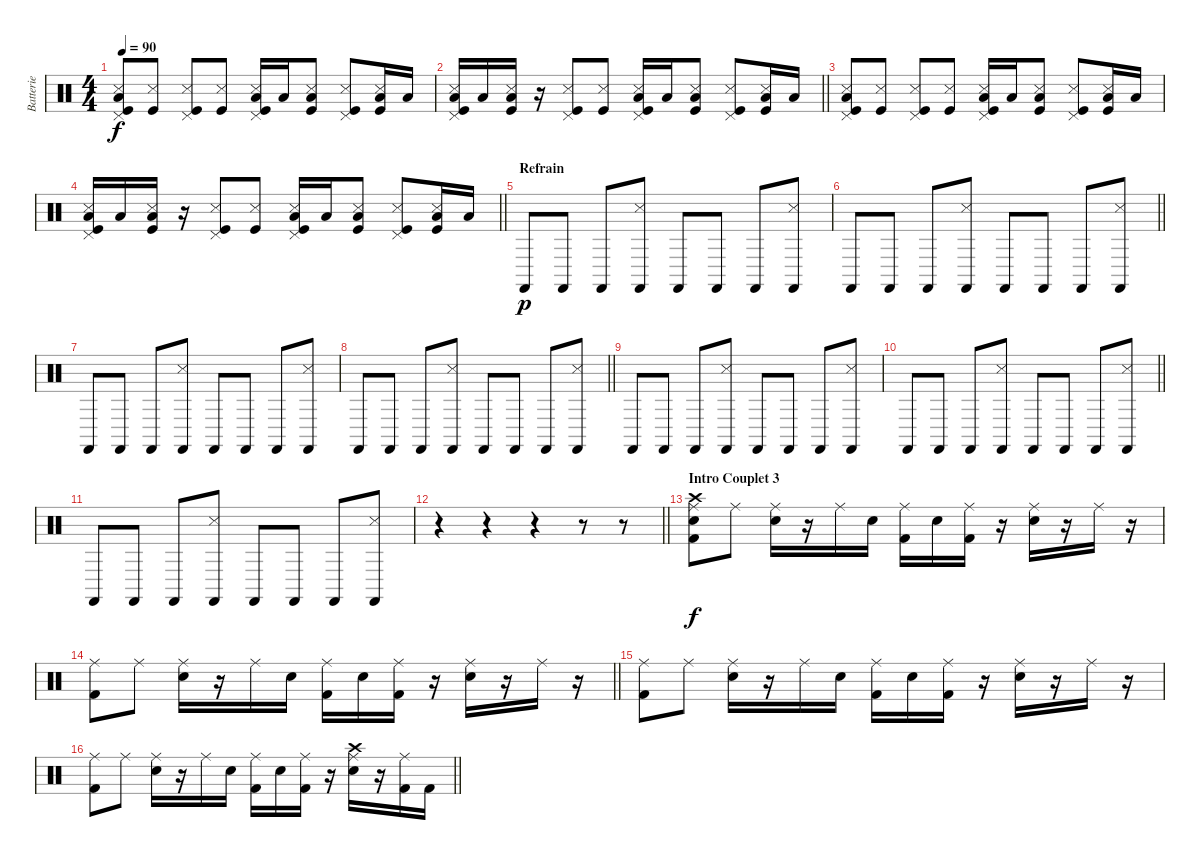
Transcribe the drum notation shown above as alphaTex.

\track ("Batterie" "Batterie") {instrument percussion}
\staff {score}
\articulation defaults
\ts (4 4)
\tempo 90
\clef neutral
\ks c
("Snare (side stick) 3" "Pedal Hi-Hat (hit)" "Low Floor Tom (hit)" "Kick (hit)").8{dy f} ("Snare (side stick) 3" "Kick (hit)").8 ("Snare (side stick) 3" "Pedal Hi-Hat (hit)" "Kick (hit)").8 ("Snare (side stick) 3" "Kick (hit)").8 ("Snare (side stick) 3" "Pedal Hi-Hat (hit)" "Low Floor Tom (hit)" "Kick (hit)").16 "Low Floor Tom (hit)".16 ("Snare (side stick) 3" "Low Floor Tom (hit)" "Kick (hit)").8 ("Snare (side stick) 3" "Pedal Hi-Hat (hit)" "Kick (hit)").8 ("Snare (side stick) 3" "Low Floor Tom (hit)" "Kick (hit)").16 "Low Floor Tom (hit)".16 |
\barLineRight lightlight
("Snare (side stick) 3" "Pedal Hi-Hat (hit)" "Low Floor Tom (hit)" "Kick (hit)").16 "Low Floor Tom (hit)".16 ("Snare (side stick) 3" "Low Floor Tom (hit)" "Kick (hit)").16 r.16 ("Snare (side stick) 3" "Pedal Hi-Hat (hit)" "Kick (hit)").8 ("Snare (side stick) 3" "Kick (hit)").8 ("Snare (side stick) 3" "Pedal Hi-Hat (hit)" "Low Floor Tom (hit)" "Kick (hit)").16 "Low Floor Tom (hit)".16 ("Snare (side stick) 3" "Low Floor Tom (hit)" "Kick (hit)").8 ("Snare (side stick) 3" "Pedal Hi-Hat (hit)" "Kick (hit)").8 ("Snare (side stick) 3" "Low Floor Tom (hit)" "Kick (hit)").16 "Low Floor Tom (hit)".16 |
("Snare (side stick) 3" "Pedal Hi-Hat (hit)" "Low Floor Tom (hit)" "Kick (hit)").8 ("Snare (side stick) 3" "Kick (hit)").8 ("Snare (side stick) 3" "Pedal Hi-Hat (hit)" "Kick (hit)").8 ("Snare (side stick) 3" "Kick (hit)").8 ("Snare (side stick) 3" "Pedal Hi-Hat (hit)" "Low Floor Tom (hit)" "Kick (hit)").16 "Low Floor Tom (hit)".16 ("Snare (side stick) 3" "Low Floor Tom (hit)" "Kick (hit)").8 ("Snare (side stick) 3" "Pedal Hi-Hat (hit)" "Kick (hit)").8 ("Snare (side stick) 3" "Low Floor Tom (hit)" "Kick (hit)").16 "Low Floor Tom (hit)".16 |
\barLineRight lightlight
("Snare (side stick) 3" "Pedal Hi-Hat (hit)" "Low Floor Tom (hit)" "Kick (hit)").16 "Low Floor Tom (hit)".16 ("Snare (side stick) 3" "Low Floor Tom (hit)" "Kick (hit)").16 r.16 ("Snare (side stick) 3" "Pedal Hi-Hat (hit)" "Kick (hit)").8 ("Snare (side stick) 3" "Kick (hit)").8 ("Snare (side stick) 3" "Pedal Hi-Hat (hit)" "Low Floor Tom (hit)" "Kick (hit)").16 "Low Floor Tom (hit)".16 ("Snare (side stick) 3" "Low Floor Tom (hit)" "Kick (hit)").8 ("Snare (side stick) 3" "Pedal Hi-Hat (hit)" "Kick (hit)").8 ("Snare (side stick) 3" "Low Floor Tom (hit)" "Kick (hit)").16 "Low Floor Tom (hit)".16 |
\section ("" "Refrain")
"Castanets (hit)".8{dy p} "Castanets (hit)".8 "Castanets (hit)".8 ("Castanets (hit)" "Snare (side stick) 3").8 "Castanets (hit)".8 "Castanets (hit)".8 "Castanets (hit)".8 ("Castanets (hit)" "Snare (side stick) 3").8 |
\barLineRight lightlight "Castanets (hit)".8 "Castanets (hit)".8 "Castanets (hit)".8
("Castanets (hit)" "Snare (side stick) 3").8 "Castanets (hit)".8 "Castanets (hit)".8 "Castanets (hit)".8 ("Castanets (hit)" "Snare (side stick) 3").8 |
"Castanets (hit)".8 "Castanets (hit)".8 "Castanets (hit)".8 ("Castanets (hit)" "Snare (side stick) 3").8 "Castanets (hit)".8 "Castanets (hit)".8 "Castanets (hit)".8 ("Castanets (hit)" "Snare (side stick) 3").8 |
\barLineRight lightlight "Castanets (hit)".8 "Castanets (hit)".8 "Castanets (hit)".8
("Castanets (hit)" "Snare (side stick) 3").8 "Castanets (hit)".8 "Castanets (hit)".8 "Castanets (hit)".8 ("Castanets (hit)" "Snare (side stick) 3").8 |
"Castanets (hit)".8 "Castanets (hit)".8 "Castanets (hit)".8 ("Castanets (hit)" "Snare (side stick) 3").8 "Castanets (hit)".8 "Castanets (hit)".8 "Castanets (hit)".8 ("Castanets (hit)" "Snare (side stick) 3").8 |
\barLineRight lightlight "Castanets (hit)".8 "Castanets (hit)".8 "Castanets (hit)".8
("Castanets (hit)" "Snare (side stick) 3").8 "Castanets (hit)".8 "Castanets (hit)".8 "Castanets (hit)".8 ("Castanets (hit)" "Snare (side stick) 3").8 |
"Castanets (hit)".8 "Castanets (hit)".8 "Castanets (hit)".8 ("Castanets (hit)" "Snare (side stick) 3").8 "Castanets (hit)".8 "Castanets (hit)".8 "Castanets (hit)".8 ("Castanets (hit)" "Snare (side stick) 3").8 |
\barLineRight lightlight
r.4 r.4 r.4 r.8 r.8 |
\section ("" "Intro Couplet 3")
("Crash high (hit)" "Ride (middle)" "Electric Snare (hit)" "Kick (hit) 2").8{dy f} "Ride (middle)".8 ("Ride (middle)" "Electric Snare (hit)").16 r.16 "Ride (middle)".16 "Electric Snare (hit)".16 ("Ride (middle)" "Kick (hit) 2").16 "Electric Snare (hit)".16 ("Ride (middle)" "Kick (hit) 2").16 r.16 ("Ride (middle)" "Electric Snare (hit)").16 r.16 "Ride (middle)".16 r.16 |
\barLineRight lightlight
("Ride (middle)" "Kick (hit) 2").8 "Ride (middle)".8 ("Ride (middle)" "Electric Snare (hit)").16 r.16 "Ride (middle)".16 "Electric Snare (hit)".16 ("Ride (middle)" "Kick (hit) 2").16 "Electric Snare (hit)".16 ("Ride (middle)" "Kick (hit) 2").16 r.16 ("Ride (middle)" "Electric Snare (hit)").16 r.16 "Ride (middle)".16 r.16 |
("Ride (middle)" "Kick (hit) 2").8 "Ride (middle)".8 ("Ride (middle)" "Electric Snare (hit)").16 r.16 "Ride (middle)".16 "Electric Snare (hit)".16 ("Ride (middle)" "Kick (hit) 2").16 "Electric Snare (hit)".16 ("Ride (middle)" "Kick (hit) 2").16 r.16 ("Ride (middle)" "Electric Snare (hit)").16 r.16 "Ride (middle)".16 r.16 |
\barLineRight lightlight
("Ride (middle)" "Kick (hit) 2").8 "Ride (middle)".8 ("Ride (middle)" "Electric Snare (hit)").16 r.16 "Ride (middle)".16 "Electric Snare (hit)".16 ("Ride (middle)" "Kick (hit) 2").16 "Electric Snare (hit)".16 ("Ride (middle)" "Kick (hit) 2").16 r.16 ("Ride (middle)" "Crash high (hit)" "Electric Snare (hit)").16 r.16 ("Ride (middle)" "Kick (hit) 2").16 "Kick (hit) 2".16
